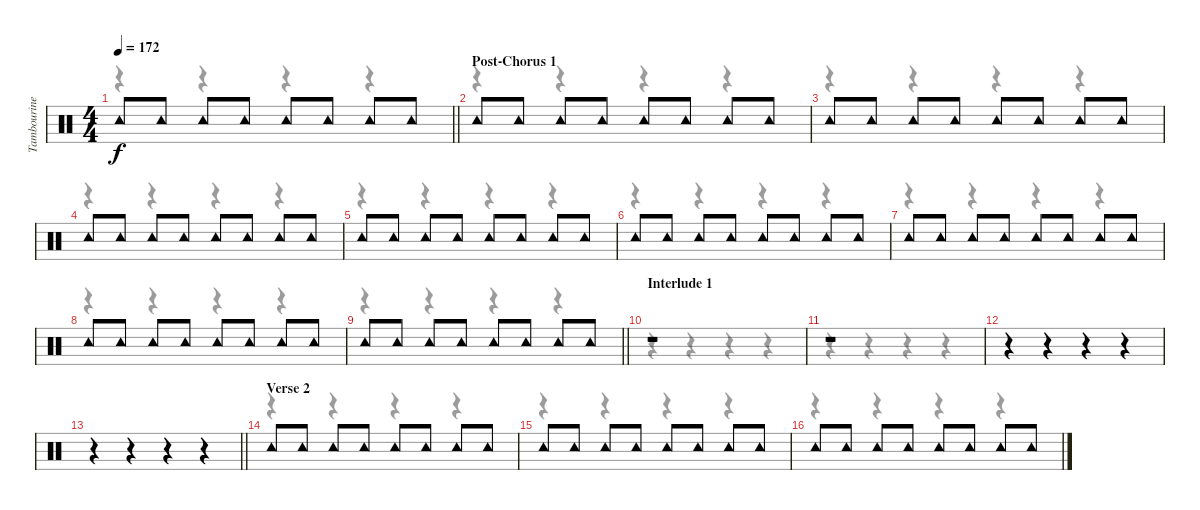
\track ("Tambourine" "Tambourine") {instrument percussion}
\staff {score}
\articulation defaults
\voice
\ts (4 4)
\tempo 172
\clef neutral
\barLineRight lightlight
\ks c "Tambourine (hit)".8{dy f} "Tambourine (hit)".8 "Tambourine (hit)".8 "Tambourine (hit)".8 "Tambourine (hit)".8 "Tambourine (hit)".8 "Tambourine (hit)".8 "Tambourine (hit)".8
|
\section ("" "Post-Chorus 1")
"Tambourine (hit)".8 "Tambourine (hit)".8 "Tambourine (hit)".8 "Tambourine (hit)".8 "Tambourine (hit)".8 "Tambourine (hit)".8 "Tambourine (hit)".8 "Tambourine (hit)".8 |
"Tambourine (hit)".8 "Tambourine (hit)".8 "Tambourine (hit)".8 "Tambourine (hit)".8 "Tambourine (hit)".8 "Tambourine (hit)".8 "Tambourine (hit)".8 "Tambourine (hit)".8 |
"Tambourine (hit)".8 "Tambourine (hit)".8 "Tambourine (hit)".8 "Tambourine (hit)".8 "Tambourine (hit)".8 "Tambourine (hit)".8 "Tambourine (hit)".8 "Tambourine (hit)".8 |
"Tambourine (hit)".8 "Tambourine (hit)".8 "Tambourine (hit)".8 "Tambourine (hit)".8 "Tambourine (hit)".8 "Tambourine (hit)".8 "Tambourine (hit)".8 "Tambourine (hit)".8 |
"Tambourine (hit)".8 "Tambourine (hit)".8 "Tambourine (hit)".8 "Tambourine (hit)".8 "Tambourine (hit)".8 "Tambourine (hit)".8 "Tambourine (hit)".8 "Tambourine (hit)".8 |
"Tambourine (hit)".8 "Tambourine (hit)".8 "Tambourine (hit)".8 "Tambourine (hit)".8 "Tambourine (hit)".8 "Tambourine (hit)".8 "Tambourine (hit)".8 "Tambourine (hit)".8 |
"Tambourine (hit)".8 "Tambourine (hit)".8 "Tambourine (hit)".8 "Tambourine (hit)".8 "Tambourine (hit)".8 "Tambourine (hit)".8 "Tambourine (hit)".8 "Tambourine (hit)".8 |
\barLineRight lightlight "Tambourine (hit)".8 "Tambourine (hit)".8 "Tambourine (hit)".8 "Tambourine (hit)".8 "Tambourine (hit)".8 "Tambourine (hit)".8 "Tambourine (hit)".8 "Tambourine (hit)".8
|
\section ("" "Interlude 1")
r.1 |
r.1 |
r.4 r.4 r.4 r.4 |
\barLineRight lightlight
r.4 r.4 r.4 r.4 |
\section ("" "Verse 2")
"Tambourine (hit)".8 "Tambourine (hit)".8 "Tambourine (hit)".8 "Tambourine (hit)".8 "Tambourine (hit)".8 "Tambourine (hit)".8 "Tambourine (hit)".8 "Tambourine (hit)".8 |
"Tambourine (hit)".8 "Tambourine (hit)".8 "Tambourine (hit)".8 "Tambourine (hit)".8 "Tambourine (hit)".8 "Tambourine (hit)".8 "Tambourine (hit)".8 "Tambourine (hit)".8 |
"Tambourine (hit)".8 "Tambourine (hit)".8 "Tambourine (hit)".8 "Tambourine (hit)".8 "Tambourine (hit)".8 "Tambourine (hit)".8 "Tambourine (hit)".8 "Tambourine (hit)".8
\voice
\clef neutral
\ottava regular
\simile none
\barLineRight lightlight
\ks c
r.4{dy f} r.4 r.4 r.4 |
r.4 r.4 r.4 r.4 |
r.4 r.4 r.4 r.4 |
r.4 r.4 r.4 r.4 |
r.4 r.4 r.4 r.4 |
r.4 r.4 r.4 r.4 |
r.4 r.4 r.4 r.4 |
r.4 r.4 r.4 r.4 |
\barLineRight lightlight
r.4 r.4 r.4 r.4 |
r.4 r.4 r.4 r.4 |
r.4 r.4 r.4 r.4 |
r.4 r.4 r.4 r.4 |
\barLineRight lightlight
r.4 r.4 r.4 r.4 |
r.4 r.4 r.4 r.4 |
r.4 r.4 r.4 r.4 |
r.4 r.4 r.4 r.4
